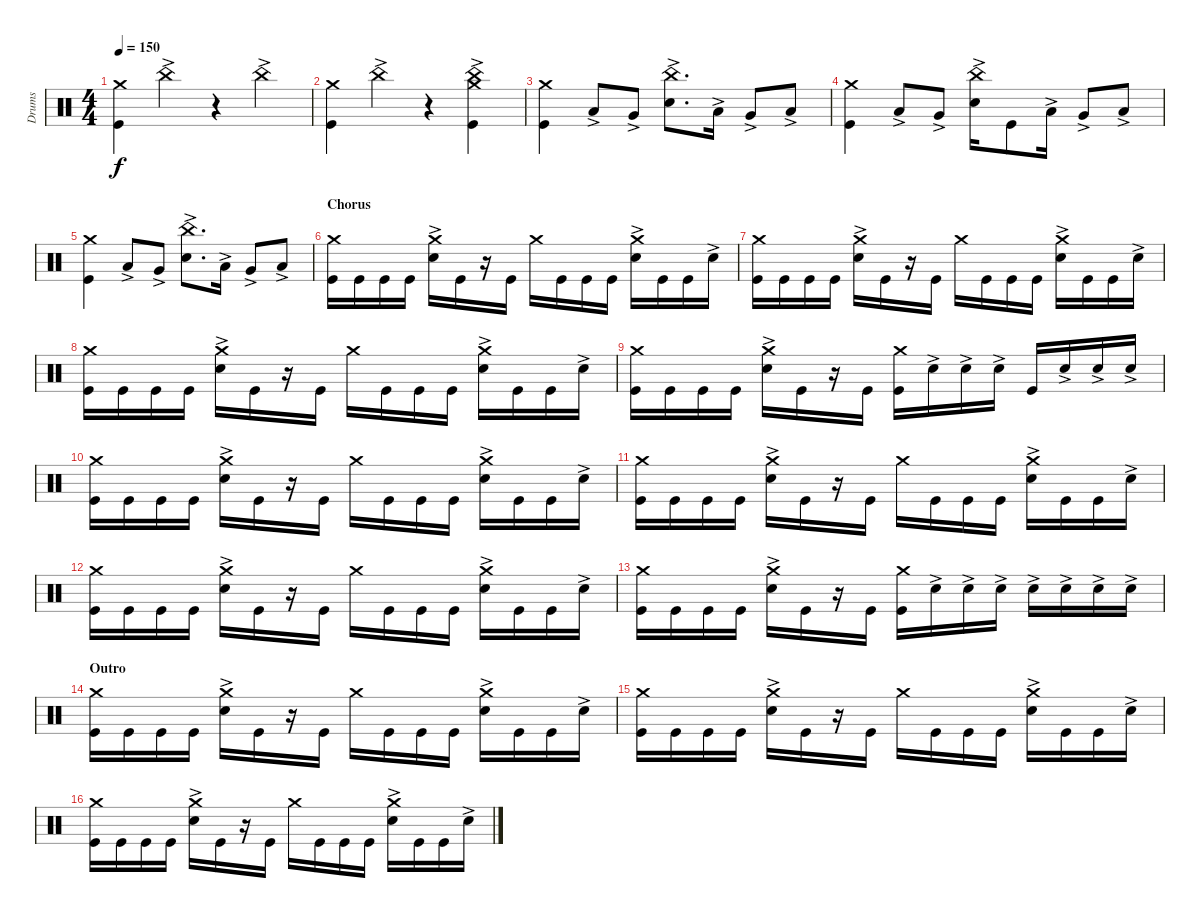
\track ("Drums" "Drums") {instrument percussion}
\staff {score}
\articulation defaults
\ts (4 4)
\tempo 150
\clef neutral
\ks c
("Crash medium (hit)" "Kick (hit)").4{dy f} "China (hit)"{ac}.4 r.4 "China (hit)"{ac}.4 |
("Crash medium (hit)" "Kick (hit)").4 "China (hit)"{ac}.4 r.4 ("China (hit)"{ac} "Kick (hit)" "Crash medium (hit)").4 |
("Kick (hit)" "Crash medium (hit)").4 "Low Tom (hit)"{ac}.8 "Very Low Tom (hit)"{ac}.8 ("Snare (hit) 2"{ac} "China (hit)"{ac}).8{d} "Low Tom (hit)"{ac}.16 "Very Low Tom (hit)"{ac}.8 "Low Floor Tom (hit)"{ac}.8 |
("Kick (hit)" "Crash medium (hit)").4 "Low Tom (hit)"{ac}.8 "Very Low Tom (hit)"{ac}.8 ("Snare (hit) 2"{ac} "China (hit)"{ac}).16 "Kick (hit)".8 "Low Tom (hit)"{ac}.16 "Very Low Tom (hit)"{ac}.8 "Low Floor Tom (hit)"{ac}.8 |
("Kick (hit)" "Crash medium (hit)").4 "Low Tom (hit)"{ac}.8 "Very Low Tom (hit)"{ac}.8 ("Snare (hit) 2"{ac} "China (hit)"{ac}).8{d} "Low Tom (hit)"{ac}.16 "Very Low Tom (hit)"{ac}.8 "Low Floor Tom (hit)"{ac}.8 |
\section ("" "Chorus")
("Crash medium (hit)" "Kick (hit)").16 "Kick (hit)".16 "Kick (hit)".16 "Kick (hit)".16 ("Crash medium (hit)" "Snare (hit) 2"{ac}).16 "Kick (hit)".16 r.16 "Kick (hit)".16 "Crash medium (hit)".16 "Kick (hit)".16 "Kick (hit)".16 "Kick (hit)".16 ("Crash medium (hit)" "Snare (hit) 2"{ac}).16 "Kick (hit)".16 "Kick (hit)".16 "Snare (hit) 2"{ac}.16 |
("Crash medium (hit)" "Kick (hit)").16 "Kick (hit)".16 "Kick (hit)".16 "Kick (hit)".16 ("Crash medium (hit)" "Snare (hit) 2"{ac}).16 "Kick (hit)".16 r.16 "Kick (hit)".16 "Crash medium (hit)".16 "Kick (hit)".16 "Kick (hit)".16 "Kick (hit)".16 ("Crash medium (hit)" "Snare (hit) 2"{ac}).16 "Kick (hit)".16 "Kick (hit)".16 "Snare (hit) 2"{ac}.16 |
("Crash medium (hit)" "Kick (hit)").16 "Kick (hit)".16 "Kick (hit)".16 "Kick (hit)".16 ("Crash medium (hit)" "Snare (hit) 2"{ac}).16 "Kick (hit)".16 r.16 "Kick (hit)".16 "Crash medium (hit)".16 "Kick (hit)".16 "Kick (hit)".16 "Kick (hit)".16 ("Crash medium (hit)" "Snare (hit) 2"{ac}).16 "Kick (hit)".16 "Kick (hit)".16 "Snare (hit) 2"{ac}.16 |
("Crash medium (hit)" "Kick (hit)").16 "Kick (hit)".16 "Kick (hit)".16 "Kick (hit)".16 ("Crash medium (hit)" "Snare (hit) 2"{ac}).16 "Kick (hit)".16 r.16 "Kick (hit)".16 ("Kick (hit)" "Crash medium (hit)").16 "Snare (hit) 2"{ac}.16 "Snare (hit) 2"{ac}.16 "Snare (hit) 2"{ac}.16 "Kick (hit)".16 "Snare (hit) 2"{ac}.16 "Snare (hit) 2"{ac}.16 "Snare (hit) 2"{ac}.16 |
("Crash medium (hit)" "Kick (hit)").16 "Kick (hit)".16 "Kick (hit)".16 "Kick (hit)".16 ("Crash medium (hit)" "Snare (hit) 2"{ac}).16 "Kick (hit)".16 r.16 "Kick (hit)".16 "Crash medium (hit)".16 "Kick (hit)".16 "Kick (hit)".16 "Kick (hit)".16 ("Crash medium (hit)" "Snare (hit) 2"{ac}).16 "Kick (hit)".16 "Kick (hit)".16 "Snare (hit) 2"{ac}.16 |
("Crash medium (hit)" "Kick (hit)").16 "Kick (hit)".16 "Kick (hit)".16 "Kick (hit)".16 ("Crash medium (hit)" "Snare (hit) 2"{ac}).16 "Kick (hit)".16 r.16 "Kick (hit)".16 "Crash medium (hit)".16 "Kick (hit)".16 "Kick (hit)".16 "Kick (hit)".16 ("Crash medium (hit)" "Snare (hit) 2"{ac}).16 "Kick (hit)".16 "Kick (hit)".16 "Snare (hit) 2"{ac}.16 |
("Crash medium (hit)" "Kick (hit)").16 "Kick (hit)".16 "Kick (hit)".16 "Kick (hit)".16 ("Crash medium (hit)" "Snare (hit) 2"{ac}).16 "Kick (hit)".16 r.16 "Kick (hit)".16 "Crash medium (hit)".16 "Kick (hit)".16 "Kick (hit)".16 "Kick (hit)".16 ("Crash medium (hit)" "Snare (hit) 2"{ac}).16 "Kick (hit)".16 "Kick (hit)".16 "Snare (hit) 2"{ac}.16 |
("Crash medium (hit)" "Kick (hit)").16 "Kick (hit)".16 "Kick (hit)".16 "Kick (hit)".16 ("Crash medium (hit)" "Snare (hit) 2"{ac}).16 "Kick (hit)".16 r.16 "Kick (hit)".16 ("Kick (hit)" "Crash medium (hit)").16 "Snare (hit) 2"{ac}.16 "Snare (hit) 2"{ac}.16 "Snare (hit) 2"{ac}.16 "Snare (hit) 2"{ac}.16 "Snare (hit) 2"{ac}.16 "Snare (hit) 2"{ac}.16 "Snare (hit) 2"{ac}.16 |
\section ("" "Outro")
("Crash medium (hit)" "Kick (hit)").16 "Kick (hit)".16 "Kick (hit)".16 "Kick (hit)".16 ("Crash medium (hit)" "Snare (hit) 2"{ac}).16 "Kick (hit)".16 r.16 "Kick (hit)".16 "Crash medium (hit)".16 "Kick (hit)".16 "Kick (hit)".16 "Kick (hit)".16 ("Crash medium (hit)" "Snare (hit) 2"{ac}).16 "Kick (hit)".16 "Kick (hit)".16 "Snare (hit) 2"{ac}.16 |
("Crash medium (hit)" "Kick (hit)").16 "Kick (hit)".16 "Kick (hit)".16 "Kick (hit)".16 ("Crash medium (hit)" "Snare (hit) 2"{ac}).16 "Kick (hit)".16 r.16 "Kick (hit)".16 "Crash medium (hit)".16 "Kick (hit)".16 "Kick (hit)".16 "Kick (hit)".16 ("Crash medium (hit)" "Snare (hit) 2"{ac}).16 "Kick (hit)".16 "Kick (hit)".16 "Snare (hit) 2"{ac}.16 |
("Crash medium (hit)" "Kick (hit)").16 "Kick (hit)".16 "Kick (hit)".16 "Kick (hit)".16 ("Crash medium (hit)" "Snare (hit) 2"{ac}).16 "Kick (hit)".16 r.16 "Kick (hit)".16 "Crash medium (hit)".16 "Kick (hit)".16 "Kick (hit)".16 "Kick (hit)".16 ("Crash medium (hit)" "Snare (hit) 2"{ac}).16 "Kick (hit)".16 "Kick (hit)".16 "Snare (hit) 2"{ac}.16
